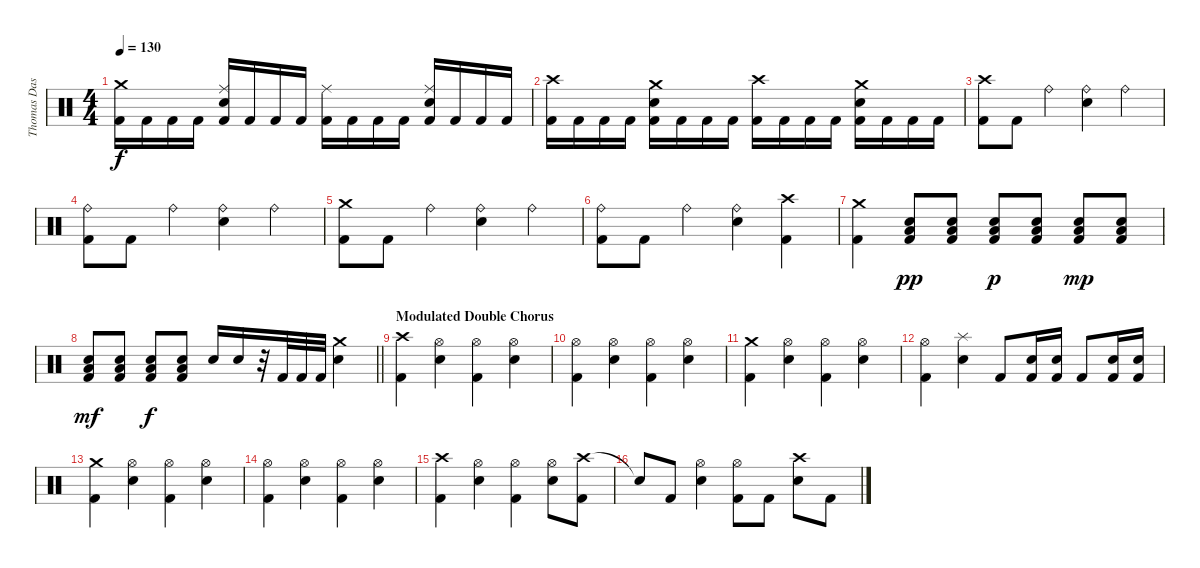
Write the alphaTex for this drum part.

\track ("Thomas Das Neves (Drums)" "Thomas Das") {instrument percussion}
\staff {score}
\articulation defaults
\ts (4 4)
\tempo 130
\clef neutral
\ks c
("Crash medium (hit)" "Kick (hit) 2").16{dy f} "Kick (hit) 2".16 "Kick (hit) 2".16 "Kick (hit) 2".16 ("Ride (middle)" "Snare (hit) 2" "Kick (hit) 2").16 "Kick (hit) 2".16 "Kick (hit) 2".16 "Kick (hit) 2".16 ("Ride (middle)" "Kick (hit) 2").16 "Kick (hit) 2".16 "Kick (hit) 2".16 "Kick (hit) 2".16 ("Ride (middle)" "Snare (hit) 2" "Kick (hit) 2").16 "Kick (hit) 2".16 "Kick (hit) 2".16 "Kick (hit) 2".16 |
("Crash high (hit)" "Kick (hit) 2").16 "Kick (hit) 2".16 "Kick (hit) 2".16 "Kick (hit) 2".16 ("Crash medium (hit)" "Snare (hit) 2" "Kick (hit) 2").16 "Kick (hit) 2".16 "Kick (hit) 2".16 "Kick (hit) 2".16 ("Crash high (hit)" "Kick (hit) 2").16 "Kick (hit) 2".16 "Kick (hit) 2".16 "Kick (hit) 2".16 ("Crash medium (hit)" "Snare (hit) 2" "Kick (hit) 2").16 "Kick (hit) 2".16 "Kick (hit) 2".16 "Kick (hit) 2".16 |
("Crash high (hit)" "Kick (hit) 2").8 "Kick (hit) 2".8 "Ride (bell)".4 ("Ride (bell)" "Snare (hit) 2").4 "Ride (bell)".4 |
("Ride (bell)" "Kick (hit) 2").8 "Kick (hit) 2".8 "Ride (bell)".4 ("Ride (bell)" "Snare (hit) 2").4 "Ride (bell)".4 |
("Crash medium (hit)" "Kick (hit) 2").8 "Kick (hit) 2".8 "Ride (bell)".4 ("Ride (bell)" "Snare (hit) 2").4 "Ride (bell)".4 |
("Ride (bell)" "Kick (hit) 2").8 "Kick (hit) 2".8 "Ride (bell)".4 ("Ride (bell)" "Snare (hit) 2").4 ("Crash high (hit)" "Kick (hit) 2").4 |
("Crash medium (hit)" "Kick (hit) 2").4 ("Low Floor Tom (hit)" "Snare (hit) 2" "Kick (hit) 2").8{dy pp} ("Low Floor Tom (hit)" "Snare (hit) 2" "Kick (hit) 2").8 ("Low Floor Tom (hit)" "Snare (hit) 2" "Kick (hit) 2").8{dy p} ("Low Floor Tom (hit)" "Snare (hit) 2" "Kick (hit) 2").8 ("Low Floor Tom (hit)" "Snare (hit) 2" "Kick (hit) 2").8{dy mp} ("Low Floor Tom (hit)" "Snare (hit) 2" "Kick (hit) 2").8 |
\barLineRight lightlight
("Low Floor Tom (hit)" "Snare (hit) 2" "Kick (hit) 2").8{dy mf} ("Low Floor Tom (hit)" "Snare (hit) 2" "Kick (hit) 2").8 ("Low Floor Tom (hit)" "Snare (hit) 2" "Kick (hit) 2").8{dy f} ("Low Floor Tom (hit)" "Snare (hit) 2" "Kick (hit) 2").8 "Snare (hit) 2".16 "Snare (hit) 2".16 r.32 "Kick (hit) 2".32 "Kick (hit) 2".32 "Kick (hit) 2".32 ("Crash medium (hit)" "Snare (hit) 2").4 |
\section ("" "Modulated Double Chorus")
("Crash high (hit)" "Kick (hit) 2").4 ("Hi-Hat (open)" "Snare (hit) 2").4 ("Hi-Hat (open)" "Kick (hit) 2").4 ("Hi-Hat (open)" "Snare (hit) 2").4 |
("Hi-Hat (open)" "Kick (hit) 2").4 ("Hi-Hat (open)" "Snare (hit) 2").4 ("Hi-Hat (open)" "Kick (hit) 2").4 ("Hi-Hat (open)" "Snare (hit) 2").4 |
("Crash medium (hit)" "Kick (hit) 2").4 ("Hi-Hat (open)" "Snare (hit) 2").4 ("Hi-Hat (open)" "Kick (hit) 2").4 ("Hi-Hat (open)" "Snare (hit) 2").4 |
("Hi-Hat (open)" "Kick (hit) 2").4 ("Splash (hit)" "Snare (hit) 2").4 "Kick (hit) 2".8 ("Snare (hit) 2" "Kick (hit) 2").16 ("Snare (hit) 2" "Kick (hit) 2").16 "Kick (hit) 2".8 ("Snare (hit) 2" "Kick (hit) 2").16 ("Snare (hit) 2" "Kick (hit) 2").16 |
("Crash medium (hit)" "Kick (hit) 2").4 ("Hi-Hat (open)" "Snare (hit) 2").4 ("Hi-Hat (open)" "Kick (hit) 2").4 ("Hi-Hat (open)" "Snare (hit) 2").4 |
("Hi-Hat (open)" "Kick (hit) 2").4 ("Hi-Hat (open)" "Snare (hit) 2").4 ("Hi-Hat (open)" "Kick (hit) 2").4 ("Hi-Hat (open)" "Snare (hit) 2").4 |
("Crash high (hit)" "Kick (hit) 2").4 ("Hi-Hat (open)" "Snare (hit) 2").4 ("Hi-Hat (open)" "Kick (hit) 2").4 ("Hi-Hat (open)" "Snare (hit) 2").8 ("Crash high (hit)" "Kick (hit) 2").8 |
"Snare (hit)"{t}.8 "Kick (hit) 2".8 ("Hi-Hat (open)" "Snare (hit) 2").4 ("Hi-Hat (open)" "Kick (hit) 2").8 "Kick (hit) 2".8 ("Crash high (hit)" "Snare (hit) 2").8 "Kick (hit) 2".8
